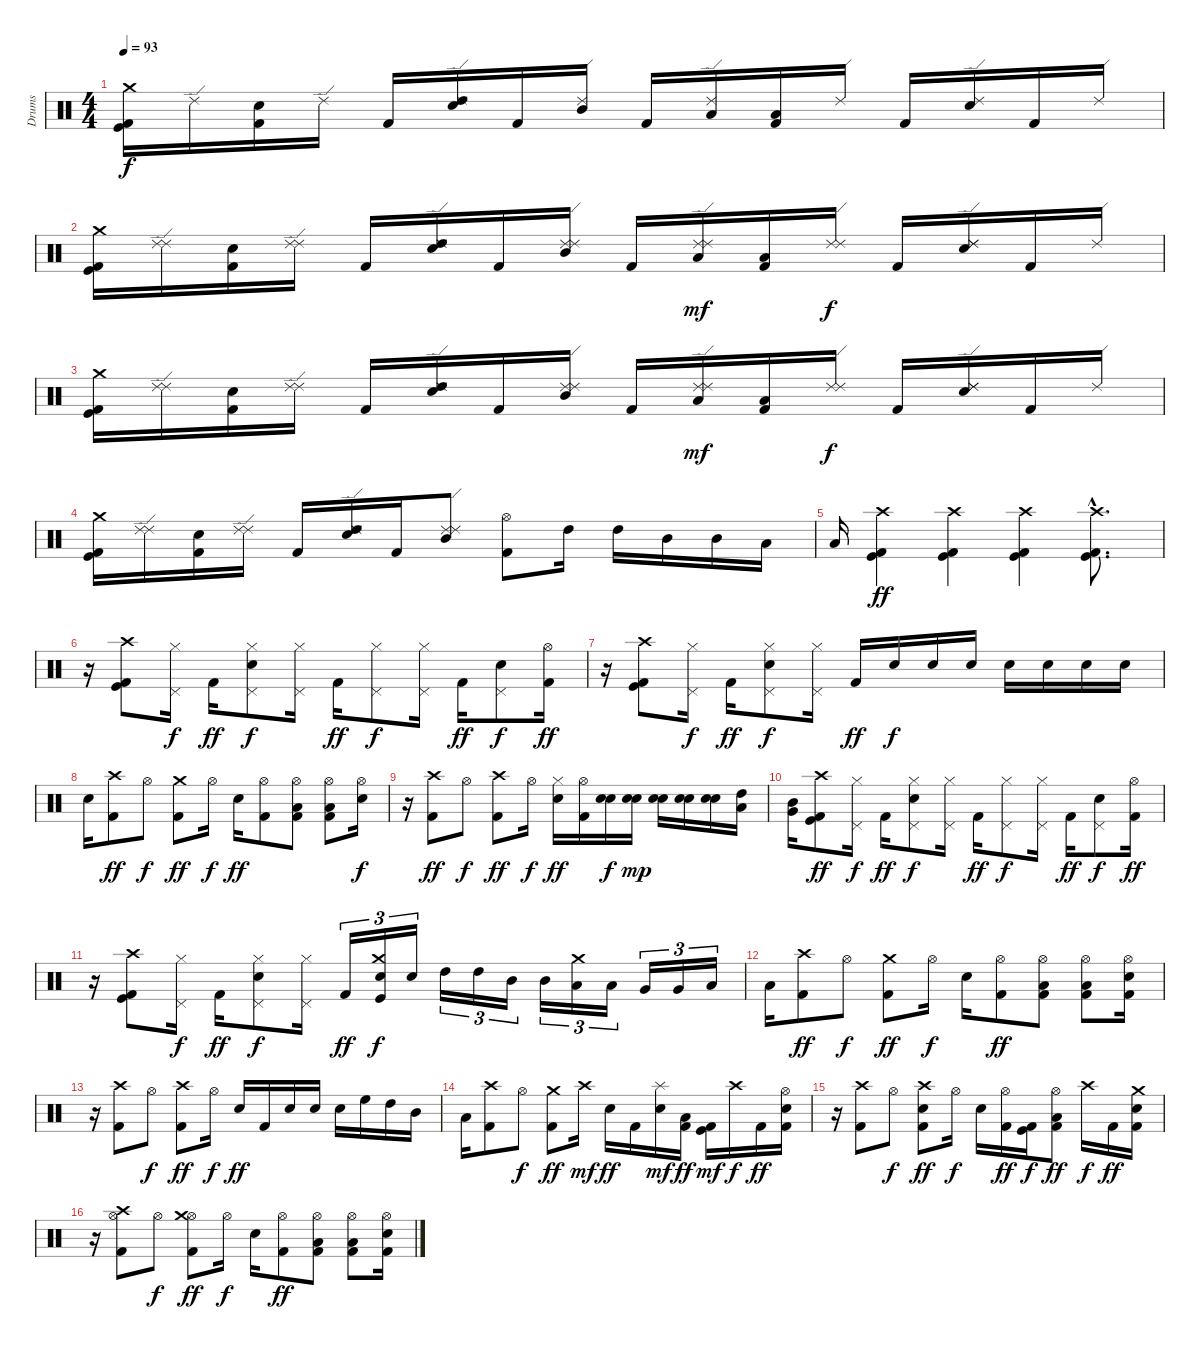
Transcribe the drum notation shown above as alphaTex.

\track ("Drums" "Drums") {instrument percussion}
\staff {score}
\articulation defaults
\ts (4 4)
\tempo 93
\clef neutral
\ks c
("Kick (hit)" "Kick (hit) 2" "Crash medium (hit)").16{dy f} "Ride (edge) 2".16 ("Electric Snare (hit)" "Kick (hit) 2").16 "Ride (edge) 2".16 "Kick (hit) 2".16 ("Ride (edge) 2" "High Tom (hit)" "Electric Snare (hit)").16 "Kick (hit) 2".16 ("Ride (edge) 2" "Mid Tom (hit)").16 "Kick (hit) 2".16 ("Low Tom (hit)" "Ride (edge) 2").16 ("Kick (hit) 2" "Low Tom (hit)").16 "Ride (edge) 2".16 "Kick (hit) 2".16 ("Electric Snare (hit)" "Ride (edge) 2").16 "Kick (hit) 2".16 "Ride (edge) 2".16 |
("Kick (hit)" "Kick (hit) 2" "Crash medium (hit)").16 ("Ride (edge) 2" "Ride (edge) 2").16 ("Electric Snare (hit)" "Kick (hit) 2").16 ("Ride (edge) 2" "Ride (edge) 2").16 "Kick (hit) 2".16 ("Ride (edge) 2" "Ride (edge) 2" "High Tom (hit)" "Electric Snare (hit)").16 "Kick (hit) 2".16 ("Ride (edge) 2" "Ride (edge) 2" "Mid Tom (hit)").16 "Kick (hit) 2".16 ("Low Tom (hit)" "Ride (edge) 2" "Ride (edge) 2").16{dy mf} ("Low Tom (hit)" "Kick (hit) 2").16 ("Ride (edge) 2" "Ride (edge) 2").16{dy f} "Kick (hit) 2".16 ("Ride (edge) 2" "Electric Snare (hit)" "Ride (edge) 2").16 "Kick (hit) 2".16 "Ride (edge) 2".16 |
("Kick (hit)" "Kick (hit) 2" "Crash medium (hit)").16 ("Ride (edge) 2" "Ride (edge) 2").16 ("Electric Snare (hit)" "Kick (hit) 2").16 ("Ride (edge) 2" "Ride (edge) 2").16 "Kick (hit) 2".16 ("Ride (edge) 2" "Ride (edge) 2" "High Tom (hit)" "Electric Snare (hit)").16 "Kick (hit) 2".16 ("Ride (edge) 2" "Ride (edge) 2" "Mid Tom (hit)").16 "Kick (hit) 2".16 ("Low Tom (hit)" "Ride (edge) 2" "Ride (edge) 2").16{dy mf} ("Low Tom (hit)" "Kick (hit) 2").16 ("Ride (edge) 2" "Ride (edge) 2").16{dy f} "Kick (hit) 2".16 ("Ride (edge) 2" "Electric Snare (hit)" "Ride (edge) 2").16 "Kick (hit) 2".16 "Ride (edge) 2".16 |
("Kick (hit)" "Kick (hit) 2" "Crash medium (hit)").16 ("Ride (edge) 2" "Ride (edge) 2").16 ("Electric Snare (hit)" "Kick (hit) 2").16 ("Ride (edge) 2" "Ride (edge) 2").16 "Kick (hit) 2".16 ("Ride (edge) 2" "Ride (edge) 2" "High Tom (hit)" "Electric Snare (hit)").16 "Kick (hit) 2".16 ("Ride (edge) 2" "Ride (edge) 2" "Mid Tom (hit)").8 ("Kick (hit) 2" "Hi-Hat (open)").8 "High Tom (hit)".16 "High Tom (hit)".16 "Mid Tom (hit)".16 "Mid Tom (hit)".16 "Low Tom (hit)".16 |
"Low Tom (hit)".16 ("Kick (hit)" "Kick (hit) 2" "Crash high (hit)").4{dy ff} ("Kick (hit)" "Kick (hit) 2" "Crash high (hit)").4 ("Kick (hit)" "Kick (hit) 2" "Crash high (hit)").4 ("Kick (hit)"{hac} "Kick (hit) 2"{hac} "Crash high (hit)"{hac}).8{d} |
r.16 ("Kick (hit) 2" "Kick (hit)" "Crash high (hit)").8 ("Pedal Hi-Hat (hit)" "Hi-Hat (closed)").16{dy f} "Kick (hit) 2".16{dy ff} ("Electric Snare (hit)" "Hi-Hat (closed)" "Pedal Hi-Hat (hit)").8{dy f} ("Hi-Hat (closed)" "Pedal Hi-Hat (hit)").16 "Kick (hit) 2".16{dy ff} ("Hi-Hat (closed)" "Pedal Hi-Hat (hit)").8{dy f} ("Hi-Hat (closed)" "Pedal Hi-Hat (hit)").16 "Kick (hit) 2".16{dy ff} ("Pedal Hi-Hat (hit)" "Electric Snare (hit)").8{dy f} ("Kick (hit) 2" "Hi-Hat (open)").16{dy ff} |
r.16 ("Crash high (hit)" "Kick (hit) 2" "Kick (hit)").8 ("Hi-Hat (closed)" "Pedal Hi-Hat (hit)").16{dy f} "Kick (hit) 2".16{dy ff} ("Hi-Hat (closed)" "Pedal Hi-Hat (hit)" "Electric Snare (hit)").8{dy f} ("Hi-Hat (closed)" "Pedal Hi-Hat (hit)").16 "Kick (hit) 2".16{dy ff} "Electric Snare (hit)".16{dy f} "Electric Snare (hit)".16 "Electric Snare (hit)".16 "Electric Snare (hit)".16 "Electric Snare (hit)".16 "Electric Snare (hit)".16 "Electric Snare (hit)".16 |
"Electric Snare (hit)".16 ("Crash high (hit)" "Kick (hit) 2").8{dy ff} "Hi-Hat (open)".8{dy f} ("Crash medium (hit)" "Kick (hit) 2").8{dy ff} "Hi-Hat (open)".16{dy f} "Electric Snare (hit)".16{dy ff} ("Kick (hit) 2" "Hi-Hat (open)").8 ("Hi-Hat (open)" "Low Tom (hit)" "Kick (hit) 2").8 ("Hi-Hat (open)" "Low Floor Tom (hit)" "Kick (hit) 2").8 ("Hi-Hat (open)" "Electric Snare (hit)").16{dy f} |
r.16 ("Kick (hit) 2" "Crash high (hit)").8{dy ff} "Hi-Hat (open)".8{dy f} ("Kick (hit) 2" "Crash high (hit)").8{dy ff} "Hi-Hat (open)".16{dy f} ("Hi-Hat (closed)" "Electric Snare (hit)").16{dy ff} ("Kick (hit) 2" "Hi-Hat (open)").16 ("Snare (hit) 2" "Electric Snare (hit)").16{dy f} ("Electric Snare (hit)" "Snare (hit) 2").16{dy mp} ("Electric Snare (hit)" "Snare (hit) 2").16 ("Electric Snare (hit)" "Snare (hit) 2").16 ("Electric Snare (hit)" "Snare (hit) 2").16 ("High Tom (hit)" "Low Tom (hit)").16 |
("Mid Tom (hit)" "Very Low Tom (hit)").16 ("Kick (hit) 2" "Kick (hit)" "Crash high (hit)").8{dy ff} ("Pedal Hi-Hat (hit)" "Hi-Hat (closed)").16{dy f} "Kick (hit) 2".16{dy ff} ("Electric Snare (hit)" "Hi-Hat (closed)" "Pedal Hi-Hat (hit)").8{dy f} ("Hi-Hat (closed)" "Pedal Hi-Hat (hit)").16 "Kick (hit) 2".16{dy ff} ("Hi-Hat (closed)" "Pedal Hi-Hat (hit)").8{dy f} ("Hi-Hat (closed)" "Pedal Hi-Hat (hit)").16 "Kick (hit) 2".16{dy ff} ("Pedal Hi-Hat (hit)" "Electric Snare (hit)").8{dy f} ("Kick (hit) 2" "Hi-Hat (open)").16{dy ff} |
r.16 ("Crash high (hit)" "Kick (hit) 2" "Kick (hit)").8 ("Hi-Hat (closed)" "Pedal Hi-Hat (hit)").16{dy f} "Kick (hit) 2".16{dy ff} ("Hi-Hat (closed)" "Pedal Hi-Hat (hit)" "Electric Snare (hit)").8{dy f} ("Hi-Hat (closed)" "Pedal Hi-Hat (hit)").16 "Kick (hit) 2".16{tu (3 2) dy ff} ("Crash medium (hit)" "Kick (hit)" "Electric Snare (hit)").16{tu (3 2) dy f} "Electric Snare (hit)".16{tu (3 2)} "High Tom (hit)".16{tu (3 2)} "High Tom (hit)".16{tu (3 2)} "Mid Tom (hit)".16{tu (3 2)} "Mid Tom (hit)".16{tu (3 2)} ("Crash medium (hit)" "Low Tom (hit)").16{tu (3 2)} "Low Tom (hit)".16{tu (3 2)} "Very Low Tom (hit)".16{tu (3 2)} "Very Low Tom (hit)".16{tu (3 2)} "Low Floor Tom (hit)".16{tu (3 2)} |
"Low Floor Tom (hit)".16 ("Crash high (hit)" "Kick (hit) 2").8{dy ff} "Hi-Hat (open)".8{dy f} ("Crash medium (hit)" "Kick (hit) 2").8{dy ff} "Hi-Hat (open)".16{dy f} "Electric Snare (hit)".16 ("Kick (hit) 2" "Hi-Hat (open)").8{dy ff} ("Hi-Hat (open)" "Low Tom (hit)" "Kick (hit) 2").8 ("Hi-Hat (open)" "Low Floor Tom (hit)" "Kick (hit) 2").8 ("Kick (hit) 2" "Hi-Hat (open)" "Electric Snare (hit)").16 |
r.16 ("Kick (hit) 2" "Crash high (hit)").8 "Hi-Hat (open)".8{dy f} ("Kick (hit) 2" "Crash high (hit)").8{dy ff} "Hi-Hat (open)".16{dy f} "Electric Snare (hit)".16{dy ff} "Kick (hit) 2".16 "Electric Snare (hit)".16 "Electric Snare (hit)".16 "Electric Snare (hit)".16 "High Floor Tom (hit)".16 "High Tom (hit)".16 "Mid Tom (hit)".16 |
"Low Tom (hit)".16 ("Crash high (hit)" "Kick (hit) 2").8 "Hi-Hat (open)".8{dy f} ("Crash medium (hit)" "Kick (hit) 2").8{dy ff} "Crash high (hit)".16{dy mf} "Electric Snare (hit)".16{dy ff} "Kick (hit) 2".16 ("Snare (hit) 2" "Splash (hit)").16{dy mf} ("Low Tom (hit)" "Kick (hit) 2").16{dy ff} ("Kick (hit)" "Kick (hit) 2").16{dy mf} "Crash high (hit)".16{dy f} "Kick (hit) 2".16{dy ff} ("Kick (hit) 2" "Hi-Hat (open)" "Electric Snare (hit)").16 |
r.16 ("Kick (hit) 2" "Crash high (hit)").8 "Hi-Hat (open)".8{dy f} ("Electric Snare (hit)" "Kick (hit) 2" "Crash high (hit)").8{dy ff} "Hi-Hat (open)".16{dy f} "Electric Snare (hit)".16 ("Kick (hit) 2" "Hi-Hat (open)").16{dy ff} ("Kick (hit)" "Kick (hit) 2").16{dy f} ("Low Floor Tom (hit)" "Kick (hit) 2" "Hi-Hat (open)").8{dy ff} "Crash high (hit)".16{dy f} "Kick (hit) 2".16{dy ff} ("Kick (hit) 2" "Crash medium (hit)" "Electric Snare (hit)").16 |
r.16 ("Crash high (hit)" "Kick (hit) 2" "Hi-Hat (open)").8 "Hi-Hat (open)".8{dy f} ("Hi-Hat (open)" "Crash medium (hit)" "Kick (hit) 2").8{dy ff} "Hi-Hat (open)".16{dy f} "Electric Snare (hit)".16 ("Kick (hit) 2" "Hi-Hat (open)").8{dy ff} ("Hi-Hat (open)" "Low Tom (hit)" "Kick (hit) 2").8 ("Hi-Hat (open)" "Low Floor Tom (hit)" "Kick (hit) 2").8 ("Kick (hit) 2" "Hi-Hat (open)" "Electric Snare (hit)").16
